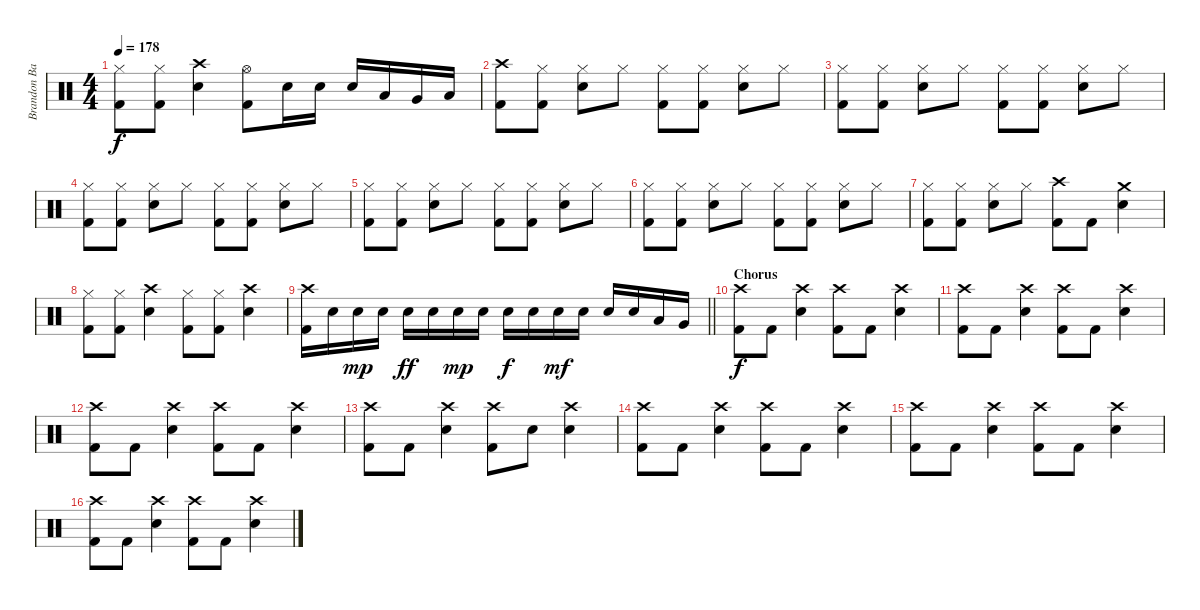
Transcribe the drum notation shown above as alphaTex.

\track ("Brandon Barnes - Drums" "Brandon Ba") {instrument percussion}
\staff {score}
\articulation defaults
\ts (4 4)
\tempo 178
\clef neutral
\ks c
("Kick (hit) 2" "Hi-Hat (closed)").8{dy f} ("Kick (hit) 2" "Hi-Hat (closed)").8 ("Snare (hit) 2" "Crash high (hit)").4 ("Hi-Hat (open)" "Kick (hit) 2").8 "Snare (hit) 2".16 "Snare (hit) 2".16 "Snare (hit) 2".16 "Low Tom (hit)".16 "Very Low Tom (hit)".16 "Low Floor Tom (hit)".16 |
("Kick (hit) 2" "Crash high (hit)").8 ("Kick (hit) 2" "Hi-Hat (closed)").8 ("Snare (hit) 2" "Hi-Hat (closed)").8 "Hi-Hat (closed)".8 ("Kick (hit) 2" "Hi-Hat (closed)").8 ("Kick (hit) 2" "Hi-Hat (closed)").8 ("Snare (hit) 2" "Hi-Hat (closed)").8 "Hi-Hat (closed)".8 |
("Kick (hit) 2" "Hi-Hat (closed)").8 ("Kick (hit) 2" "Hi-Hat (closed)").8 ("Snare (hit) 2" "Hi-Hat (closed)").8 "Hi-Hat (closed)".8 ("Kick (hit) 2" "Hi-Hat (closed)").8 ("Kick (hit) 2" "Hi-Hat (closed)").8 ("Snare (hit) 2" "Hi-Hat (closed)").8 "Hi-Hat (closed)".8 |
("Kick (hit) 2" "Hi-Hat (closed)").8 ("Kick (hit) 2" "Hi-Hat (closed)").8 ("Snare (hit) 2" "Hi-Hat (closed)").8 "Hi-Hat (closed)".8 ("Kick (hit) 2" "Hi-Hat (closed)").8 ("Kick (hit) 2" "Hi-Hat (closed)").8 ("Snare (hit) 2" "Hi-Hat (closed)").8 "Hi-Hat (closed)".8 |
("Kick (hit) 2" "Hi-Hat (closed)").8 ("Kick (hit) 2" "Hi-Hat (closed)").8 ("Snare (hit) 2" "Hi-Hat (closed)").8 "Hi-Hat (closed)".8 ("Kick (hit) 2" "Hi-Hat (closed)").8 ("Kick (hit) 2" "Hi-Hat (closed)").8 ("Snare (hit) 2" "Hi-Hat (closed)").8 "Hi-Hat (closed)".8 |
("Kick (hit) 2" "Hi-Hat (closed)").8 ("Kick (hit) 2" "Hi-Hat (closed)").8 ("Snare (hit) 2" "Hi-Hat (closed)").8 "Hi-Hat (closed)".8 ("Kick (hit) 2" "Hi-Hat (closed)").8 ("Kick (hit) 2" "Hi-Hat (closed)").8 ("Snare (hit) 2" "Hi-Hat (closed)").8 "Hi-Hat (closed)".8 |
("Kick (hit) 2" "Hi-Hat (closed)").8 ("Kick (hit) 2" "Hi-Hat (closed)").8 ("Snare (hit) 2" "Hi-Hat (closed)").8 "Hi-Hat (closed)".8 ("Kick (hit) 2" "Crash high (hit)").8 "Kick (hit) 2".8 ("Snare (hit) 2" "Crash medium (hit)").4 |
("Kick (hit) 2" "Hi-Hat (closed)").8 ("Kick (hit) 2" "Hi-Hat (closed)").8 ("Snare (hit) 2" "Crash high (hit)").4 ("Kick (hit) 2" "Hi-Hat (closed)").8 ("Kick (hit) 2" "Hi-Hat (closed)").8 ("Snare (hit) 2" "Crash high (hit)").4 |
\barLineRight lightlight
("Crash high (hit)" "Kick (hit) 2").16 "Snare (hit) 2".16 "Snare (hit) 2".16{dy mp} "Snare (hit) 2".16 "Snare (hit) 2".16{dy ff} "Snare (hit) 2".16 "Snare (hit) 2".16{dy mp} "Snare (hit) 2".16 "Snare (hit) 2".16{dy f} "Snare (hit) 2".16 "Snare (hit) 2".16{dy mf} "Snare (hit) 2".16 "Snare (hit) 2".16 "Snare (hit) 2".16 "Low Tom (hit)".16 "Very Low Tom (hit)".16 |
\section ("" "Chorus")
("Crash high (hit)" "Kick (hit) 2").8{dy f} "Kick (hit) 2".8 ("Snare (hit) 2" "Crash high (hit)").4 ("Crash high (hit)" "Kick (hit) 2").8 "Kick (hit) 2".8 ("Snare (hit) 2" "Crash high (hit)").4 |
("Crash high (hit)" "Kick (hit) 2").8 "Kick (hit) 2".8 ("Snare (hit) 2" "Crash high (hit)").4 ("Crash high (hit)" "Kick (hit) 2").8 "Kick (hit) 2".8 ("Snare (hit) 2" "Crash high (hit)").4 |
("Crash high (hit)" "Kick (hit) 2").8 "Kick (hit) 2".8 ("Snare (hit) 2" "Crash high (hit)").4 ("Crash high (hit)" "Kick (hit) 2").8 "Kick (hit) 2".8 ("Snare (hit) 2" "Crash high (hit)").4 |
("Crash high (hit)" "Kick (hit) 2").8 "Kick (hit) 2".8 ("Snare (hit) 2" "Crash high (hit)").4 ("Crash high (hit)" "Kick (hit) 2").8 "Snare (hit) 2".8 ("Snare (hit) 2" "Crash high (hit)").4 |
("Crash high (hit)" "Kick (hit) 2").8 "Kick (hit) 2".8 ("Snare (hit) 2" "Crash high (hit)").4 ("Crash high (hit)" "Kick (hit) 2").8 "Kick (hit) 2".8 ("Snare (hit) 2" "Crash high (hit)").4 |
("Crash high (hit)" "Kick (hit) 2").8 "Kick (hit) 2".8 ("Snare (hit) 2" "Crash high (hit)").4 ("Crash high (hit)" "Kick (hit) 2").8 "Kick (hit) 2".8 ("Snare (hit) 2" "Crash high (hit)").4 |
("Crash high (hit)" "Kick (hit) 2").8 "Kick (hit) 2".8 ("Snare (hit) 2" "Crash high (hit)").4 ("Crash high (hit)" "Kick (hit) 2").8 "Kick (hit) 2".8 ("Snare (hit) 2" "Crash high (hit)").4
